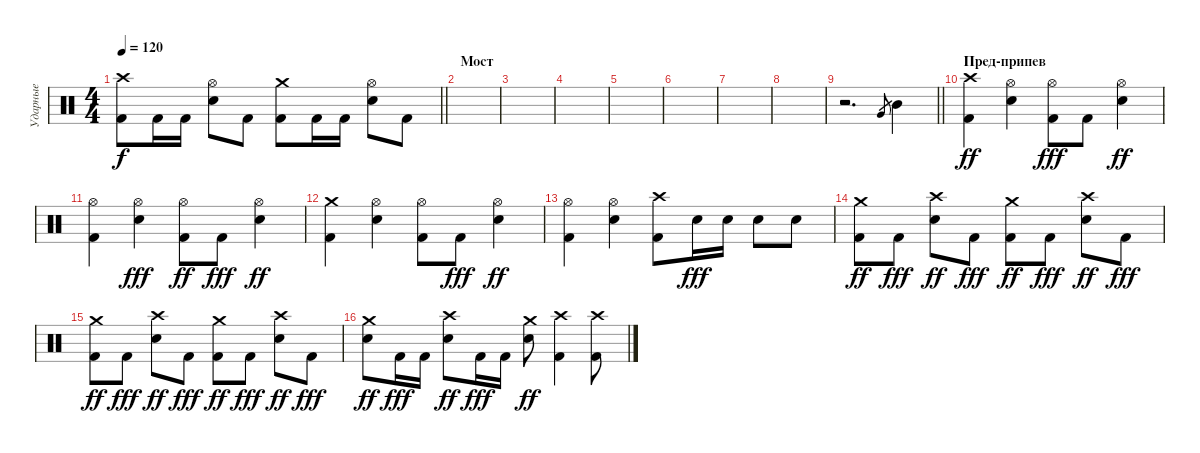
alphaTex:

\track ("Ударные" "Ударные") {instrument percussion}
\staff {score}
\articulation defaults
\ts (4 4)
\tempo 120
\clef neutral
\barLineRight lightlight
\ks c
("Kick (hit) 2" "Crash high (hit)").8{dy f} "Kick (hit) 2".16 "Kick (hit) 2".16 ("Snare (hit) 2" "Hi-Hat (open)").8 "Kick (hit) 2".8 ("Kick (hit) 2" "Crash medium (hit)").8 "Kick (hit) 2".16 "Kick (hit) 2".16 ("Snare (hit) 2" "Hi-Hat (open)").8 "Kick (hit) 2".8 |
\section ("" "Мост")
|
|
|
|
|
|
|
\barLineRight lightlight
r.2{d} "Very Low Tom (hit)".8{gr} "Mid Tom (hit)".4 |
\section ("" "Пред-припев")
("Kick (hit) 2" "Crash high (hit)").4{dy ff} ("Snare (hit) 2" "Hi-Hat (open)").4 ("Kick (hit) 2" "Hi-Hat (open)").8{dy fff} "Kick (hit) 2".8 ("Snare (hit) 2" "Hi-Hat (open)").4{dy ff} |
("Kick (hit) 2" "Hi-Hat (open)").4 ("Snare (hit) 2" "Hi-Hat (open)").4{dy fff} ("Kick (hit) 2" "Hi-Hat (open)").8{dy ff} "Kick (hit) 2".8{dy fff} ("Snare (hit) 2" "Hi-Hat (open)").4{dy ff} |
("Kick (hit) 2" "Crash medium (hit)").4 ("Snare (hit) 2" "Hi-Hat (open)").4 ("Kick (hit) 2" "Hi-Hat (open)").8 "Kick (hit) 2".8{dy fff} ("Snare (hit) 2" "Hi-Hat (open)").4{dy ff} |
("Kick (hit) 2" "Hi-Hat (open)").4 ("Snare (hit) 2" "Hi-Hat (open)").4 ("Kick (hit) 2" "Crash high (hit)").8 "Snare (hit) 2".16{dy fff} "Snare (hit) 2".16 "Snare (hit) 2".8 "Snare (hit) 2".8 |
("Kick (hit) 2" "Crash medium (hit)").8{dy ff} "Kick (hit) 2".8{dy fff} ("Snare (hit) 2" "Crash high (hit)").8{dy ff} "Kick (hit) 2".8{dy fff} ("Kick (hit) 2" "Crash medium (hit)").8{dy ff} "Kick (hit) 2".8{dy fff} ("Snare (hit) 2" "Crash high (hit)").8{dy ff} "Kick (hit) 2".8{dy fff} |
("Kick (hit) 2" "Crash medium (hit)").8{dy ff} "Kick (hit) 2".8{dy fff} ("Snare (hit) 2" "Crash high (hit)").8{dy ff} "Kick (hit) 2".8{dy fff} ("Kick (hit) 2" "Crash medium (hit)").8{dy ff} "Kick (hit) 2".8{dy fff} ("Snare (hit) 2" "Crash high (hit)").8{dy ff} "Kick (hit) 2".8{dy fff} |
("Snare (hit) 2" "Crash medium (hit)").8{dy ff} "Kick (hit) 2".16{dy fff} "Kick (hit) 2".16 ("Snare (hit) 2" "Crash high (hit)").8{dy ff} "Kick (hit) 2".16{dy fff} "Kick (hit) 2".16 ("Snare (hit) 2" "Crash medium (hit)").8{dy ff} ("Kick (hit) 2" "Crash high (hit)").4 ("Kick (hit) 2" "Crash high (hit)").8
